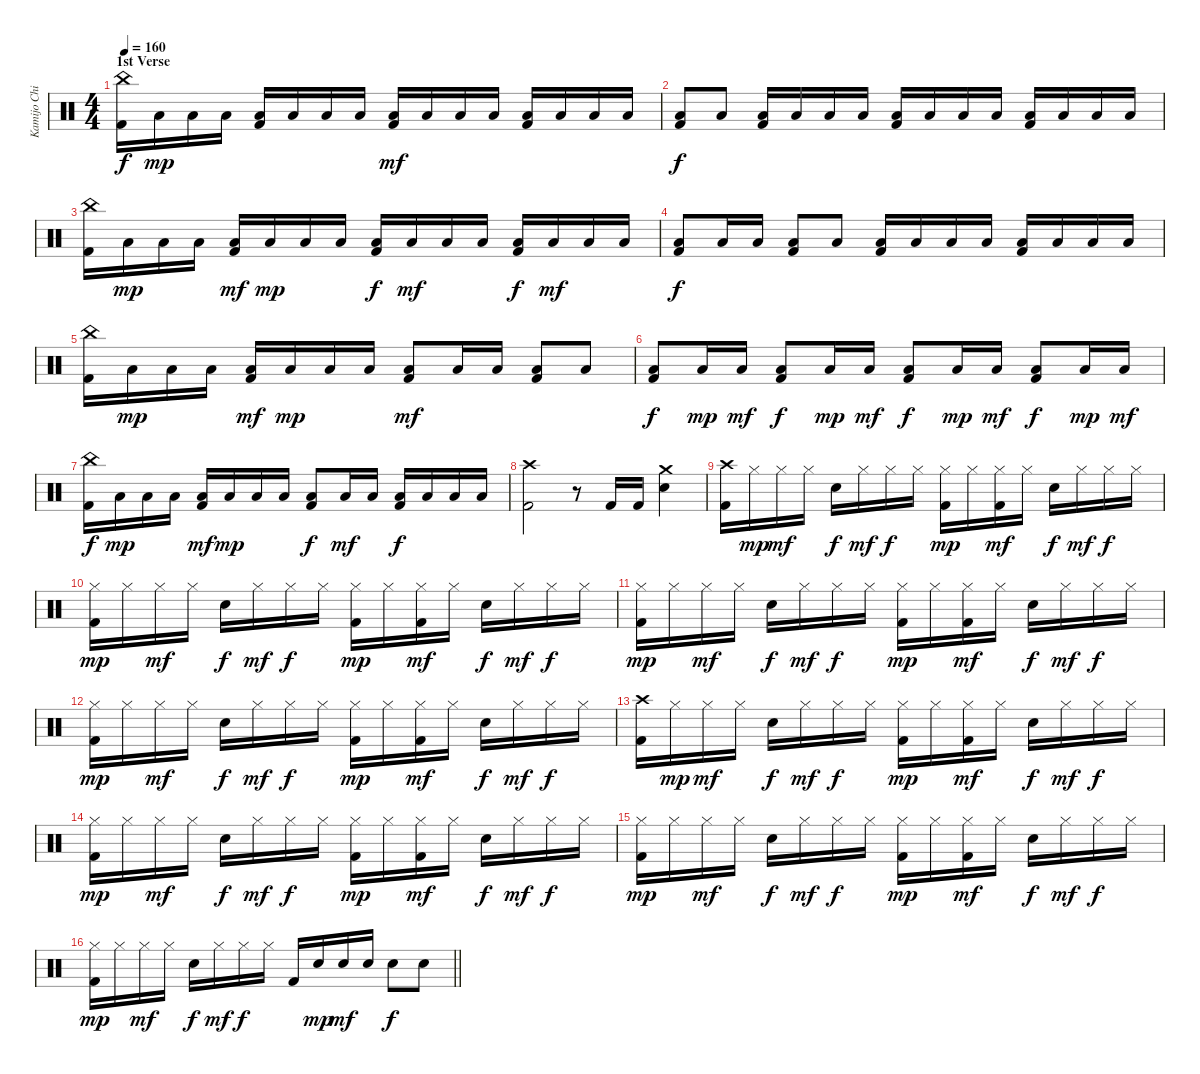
\track ("Kamijo Chihiro" "Kamijo Chi") {instrument percussion}
\staff {score}
\articulation defaults
\ts (4 4)
\section ("" "1st Verse")
\tempo 160
\clef neutral
\ks c
("China (hit)" "Kick (hit) 2").16{dy f} "Low Floor Tom (hit)".16{dy mp} "Low Floor Tom (hit)".16 "Low Floor Tom (hit)".16 ("Low Floor Tom (hit)" "Kick (hit) 2").16 "Low Floor Tom (hit)".16 "Low Floor Tom (hit)".16 "Low Floor Tom (hit)".16 ("Low Floor Tom (hit)" "Kick (hit) 2").16{dy mf} "Low Floor Tom (hit)".16 "Low Floor Tom (hit)".16 "Low Floor Tom (hit)".16 ("Low Floor Tom (hit)" "Kick (hit) 2").16 "Low Floor Tom (hit)".16 "Low Floor Tom (hit)".16 "Low Floor Tom (hit)".16 |
("Low Tom (hit)" "Kick (hit) 2").8{dy f} "Low Floor Tom (hit)".8 ("Low Tom (hit)" "Kick (hit) 2").16 "Low Tom (hit)".16 "Low Floor Tom (hit)".16 "Low Floor Tom (hit)".16 ("Low Tom (hit)" "Kick (hit) 2").16 "Low Tom (hit)".16 "Low Floor Tom (hit)".16 "Low Floor Tom (hit)".16 ("Low Tom (hit)" "Kick (hit) 2").16 "Low Tom (hit)".16 "Low Floor Tom (hit)".16 "Low Floor Tom (hit)".16 |
("China (hit)" "Kick (hit) 2").16 "Low Floor Tom (hit)".16{dy mp} "Low Floor Tom (hit)".16 "Low Floor Tom (hit)".16 ("Low Floor Tom (hit)" "Kick (hit) 2").16{dy mf} "Low Floor Tom (hit)".16{dy mp} "Low Floor Tom (hit)".16 "Low Floor Tom (hit)".16 ("Low Floor Tom (hit)" "Kick (hit) 2").16{dy f} "Low Floor Tom (hit)".16{dy mf} "Low Floor Tom (hit)".16 "Low Floor Tom (hit)".16 ("Low Floor Tom (hit)" "Kick (hit) 2").16{dy f} "Low Floor Tom (hit)".16{dy mf} "Low Floor Tom (hit)".16 "Low Floor Tom (hit)".16 |
("Low Tom (hit)" "Kick (hit) 2").8{dy f} "Low Floor Tom (hit)".16 "Low Floor Tom (hit)".16 ("Low Tom (hit)" "Kick (hit) 2").8 "Low Floor Tom (hit)".8 ("Low Tom (hit)" "Kick (hit) 2").16 "Low Tom (hit)".16 "Low Floor Tom (hit)".16 "Low Floor Tom (hit)".16 ("Low Tom (hit)" "Kick (hit) 2").16 "Low Tom (hit)".16 "Low Floor Tom (hit)".16 "Low Floor Tom (hit)".16 |
("China (hit)" "Kick (hit) 2").16 "Low Floor Tom (hit)".16{dy mp} "Low Floor Tom (hit)".16 "Low Floor Tom (hit)".16 ("Low Floor Tom (hit)" "Kick (hit) 2").16{dy mf} "Low Floor Tom (hit)".16{dy mp} "Low Floor Tom (hit)".16 "Low Floor Tom (hit)".16 ("Low Floor Tom (hit)" "Kick (hit) 2").8{dy mf} "Low Floor Tom (hit)".16 "Low Floor Tom (hit)".16 ("Low Floor Tom (hit)" "Kick (hit) 2").8 "Low Floor Tom (hit)".8 |
("Low Floor Tom (hit)" "Kick (hit) 2").8{dy f} "Low Floor Tom (hit)".16{dy mp} "Low Floor Tom (hit)".16{dy mf} ("Low Floor Tom (hit)" "Kick (hit) 2").8{dy f} "Low Floor Tom (hit)".16{dy mp} "Low Floor Tom (hit)".16{dy mf} ("Low Floor Tom (hit)" "Kick (hit) 2").8{dy f} "Low Floor Tom (hit)".16{dy mp} "Low Floor Tom (hit)".16{dy mf} ("Low Floor Tom (hit)" "Kick (hit) 2").8{dy f} "Low Floor Tom (hit)".16{dy mp} "Low Floor Tom (hit)".16{dy mf} |
("China (hit)" "Kick (hit) 2").16{dy f} "Low Floor Tom (hit)".16{dy mp} "Low Floor Tom (hit)".16 "Low Floor Tom (hit)".16 ("Low Floor Tom (hit)" "Kick (hit) 2").16{dy mf} "Low Floor Tom (hit)".16{dy mp} "Low Floor Tom (hit)".16 "Low Floor Tom (hit)".16 ("Low Tom (hit)" "Kick (hit) 2").8{dy f} "Low Floor Tom (hit)".16{dy mf} "Low Floor Tom (hit)".16 ("Low Tom (hit)" "Kick (hit) 2").16{dy f} "Low Tom (hit)".16 "Low Floor Tom (hit)".16 "Low Floor Tom (hit)".16 |
("Crash high (hit)" "Kick (hit) 2").2 r.8 "Kick (hit) 2".16 "Kick (hit) 2".16 ("Crash medium (hit)" "Snare (hit) 2").4 |
("Crash high (hit)" "Kick (hit) 2").16 "Hi-Hat (closed)".16{dy mp} "Hi-Hat (closed)".16{dy mf} "Hi-Hat (closed)".16 "Snare (hit) 2".16{dy f} "Hi-Hat (closed)".16{dy mf} "Hi-Hat (closed)".16{dy f} "Hi-Hat (closed)".16 ("Hi-Hat (closed)" "Kick (hit) 2").16{dy mp} "Hi-Hat (closed)".16 ("Hi-Hat (closed)" "Kick (hit) 2").16{dy mf} "Hi-Hat (closed)".16 "Snare (hit) 2".16{dy f} "Hi-Hat (closed)".16{dy mf} "Hi-Hat (closed)".16{dy f} "Hi-Hat (closed)".16 |
("Hi-Hat (closed)" "Kick (hit) 2").16{dy mp} "Hi-Hat (closed)".16 "Hi-Hat (closed)".16{dy mf} "Hi-Hat (closed)".16 "Snare (hit) 2".16{dy f} "Hi-Hat (closed)".16{dy mf} "Hi-Hat (closed)".16{dy f} "Hi-Hat (closed)".16 ("Hi-Hat (closed)" "Kick (hit) 2").16{dy mp} "Hi-Hat (closed)".16 ("Hi-Hat (closed)" "Kick (hit) 2").16{dy mf} "Hi-Hat (closed)".16 "Snare (hit) 2".16{dy f} "Hi-Hat (closed)".16{dy mf} "Hi-Hat (closed)".16{dy f} "Hi-Hat (closed)".16 |
("Hi-Hat (closed)" "Kick (hit) 2").16{dy mp} "Hi-Hat (closed)".16 "Hi-Hat (closed)".16{dy mf} "Hi-Hat (closed)".16 "Snare (hit) 2".16{dy f} "Hi-Hat (closed)".16{dy mf} "Hi-Hat (closed)".16{dy f} "Hi-Hat (closed)".16 ("Hi-Hat (closed)" "Kick (hit) 2").16{dy mp} "Hi-Hat (closed)".16 ("Hi-Hat (closed)" "Kick (hit) 2").16{dy mf} "Hi-Hat (closed)".16 "Snare (hit) 2".16{dy f} "Hi-Hat (closed)".16{dy mf} "Hi-Hat (closed)".16{dy f} "Hi-Hat (closed)".16 |
("Hi-Hat (closed)" "Kick (hit) 2").16{dy mp} "Hi-Hat (closed)".16 "Hi-Hat (closed)".16{dy mf} "Hi-Hat (closed)".16 "Snare (hit) 2".16{dy f} "Hi-Hat (closed)".16{dy mf} "Hi-Hat (closed)".16{dy f} "Hi-Hat (closed)".16 ("Hi-Hat (closed)" "Kick (hit) 2").16{dy mp} "Hi-Hat (closed)".16 ("Hi-Hat (closed)" "Kick (hit) 2").16{dy mf} "Hi-Hat (closed)".16 "Snare (hit) 2".16{dy f} "Hi-Hat (closed)".16{dy mf} "Hi-Hat (closed)".16{dy f} "Hi-Hat (closed)".16 |
("Crash high (hit)" "Kick (hit) 2").16 "Hi-Hat (closed)".16{dy mp} "Hi-Hat (closed)".16{dy mf} "Hi-Hat (closed)".16 "Snare (hit) 2".16{dy f} "Hi-Hat (closed)".16{dy mf} "Hi-Hat (closed)".16{dy f} "Hi-Hat (closed)".16 ("Hi-Hat (closed)" "Kick (hit) 2").16{dy mp} "Hi-Hat (closed)".16 ("Hi-Hat (closed)" "Kick (hit) 2").16{dy mf} "Hi-Hat (closed)".16 "Snare (hit) 2".16{dy f} "Hi-Hat (closed)".16{dy mf} "Hi-Hat (closed)".16{dy f} "Hi-Hat (closed)".16 |
("Hi-Hat (closed)" "Kick (hit) 2").16{dy mp} "Hi-Hat (closed)".16 "Hi-Hat (closed)".16{dy mf} "Hi-Hat (closed)".16 "Snare (hit) 2".16{dy f} "Hi-Hat (closed)".16{dy mf} "Hi-Hat (closed)".16{dy f} "Hi-Hat (closed)".16 ("Hi-Hat (closed)" "Kick (hit) 2").16{dy mp} "Hi-Hat (closed)".16 ("Hi-Hat (closed)" "Kick (hit) 2").16{dy mf} "Hi-Hat (closed)".16 "Snare (hit) 2".16{dy f} "Hi-Hat (closed)".16{dy mf} "Hi-Hat (closed)".16{dy f} "Hi-Hat (closed)".16 |
("Hi-Hat (closed)" "Kick (hit) 2").16{dy mp} "Hi-Hat (closed)".16 "Hi-Hat (closed)".16{dy mf} "Hi-Hat (closed)".16 "Snare (hit) 2".16{dy f} "Hi-Hat (closed)".16{dy mf} "Hi-Hat (closed)".16{dy f} "Hi-Hat (closed)".16 ("Hi-Hat (closed)" "Kick (hit) 2").16{dy mp} "Hi-Hat (closed)".16 ("Hi-Hat (closed)" "Kick (hit) 2").16{dy mf} "Hi-Hat (closed)".16 "Snare (hit) 2".16{dy f} "Hi-Hat (closed)".16{dy mf} "Hi-Hat (closed)".16{dy f} "Hi-Hat (closed)".16 |
\barLineRight lightlight
("Hi-Hat (closed)" "Kick (hit) 2").16{dy mp} "Hi-Hat (closed)".16 "Hi-Hat (closed)".16{dy mf} "Hi-Hat (closed)".16 "Snare (hit) 2".16{dy f} "Hi-Hat (closed)".16{dy mf} "Hi-Hat (closed)".16{dy f} "Hi-Hat (closed)".16 "Kick (hit) 2".16 "Snare (hit) 2".16{dy mp} "Snare (hit) 2".16{dy mf} "Snare (hit) 2".16 "Snare (hit) 2".8{dy f} "Snare (hit) 2".8
